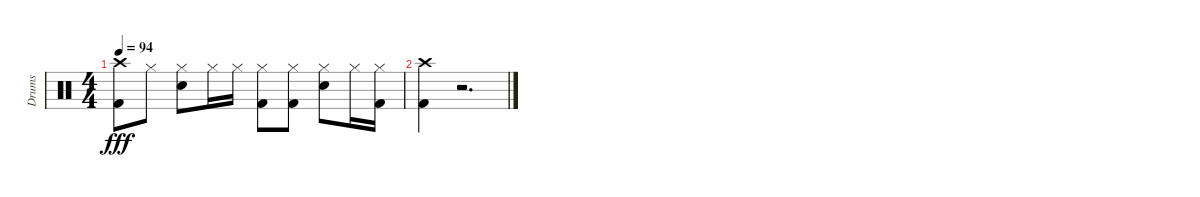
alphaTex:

\track ("Drums" "Drums") {instrument percussion}
\staff {score}
\articulation defaults
\ts (4 4)
\tempo 94
\clef neutral
\ks c
("Crash high (hit)" "Kick (hit) 2").8{dy fff} "Hi-Hat (closed)".8 ("Hi-Hat (closed)" "Snare (hit) 2").8 "Hi-Hat (closed)".16 "Hi-Hat (closed)".16 ("Hi-Hat (closed)" "Kick (hit) 2").8 ("Hi-Hat (closed)" "Kick (hit) 2").8 ("Hi-Hat (closed)" "Snare (hit) 2").8 "Hi-Hat (closed)".16 ("Hi-Hat (closed)" "Kick (hit) 2").16 |
("Crash high (hit)" "Kick (hit) 2").4 r.2{d}
